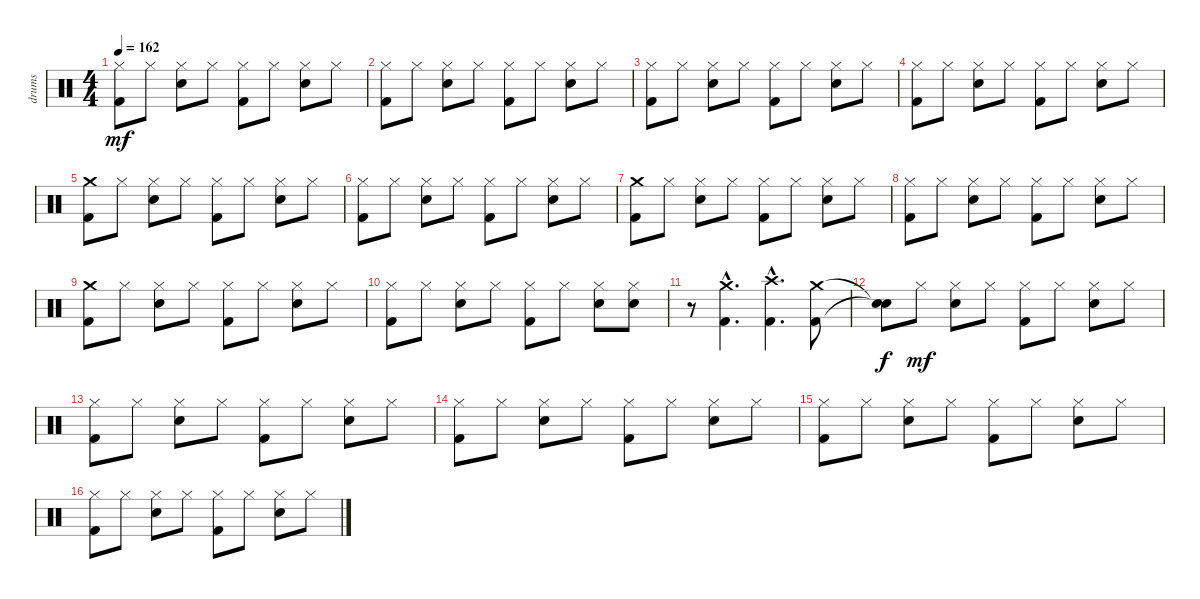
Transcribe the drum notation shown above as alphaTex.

\track ("drums" "drums") {instrument percussion}
\staff {score}
\articulation defaults
\ts (4 4)
\tempo 162
\clef neutral
\ks c
("Hi-Hat (closed)" "Kick (hit) 2").8{dy mf} "Hi-Hat (closed)".8 ("Hi-Hat (closed)" "Snare (hit) 2").8 "Hi-Hat (closed)".8 ("Hi-Hat (closed)" "Kick (hit) 2").8 "Hi-Hat (closed)".8 ("Hi-Hat (closed)" "Snare (hit) 2").8 "Hi-Hat (closed)".8 |
("Hi-Hat (closed)" "Kick (hit) 2").8 "Hi-Hat (closed)".8 ("Hi-Hat (closed)" "Snare (hit) 2").8 "Hi-Hat (closed)".8 ("Hi-Hat (closed)" "Kick (hit) 2").8 "Hi-Hat (closed)".8 ("Hi-Hat (closed)" "Snare (hit) 2").8 "Hi-Hat (closed)".8 |
("Hi-Hat (closed)" "Kick (hit) 2").8 "Hi-Hat (closed)".8 ("Hi-Hat (closed)" "Snare (hit) 2").8 "Hi-Hat (closed)".8 ("Hi-Hat (closed)" "Kick (hit) 2").8 "Hi-Hat (closed)".8 ("Hi-Hat (closed)" "Snare (hit) 2").8 "Hi-Hat (closed)".8 |
("Hi-Hat (closed)" "Kick (hit) 2").8 "Hi-Hat (closed)".8 ("Hi-Hat (closed)" "Snare (hit) 2").8 "Hi-Hat (closed)".8 ("Hi-Hat (closed)" "Kick (hit) 2").8 "Hi-Hat (closed)".8 ("Hi-Hat (closed)" "Snare (hit) 2").8 "Hi-Hat (closed)".8 |
("Crash medium (hit)" "Kick (hit) 2").8 "Hi-Hat (closed)".8 ("Hi-Hat (closed)" "Snare (hit) 2").8 "Hi-Hat (closed)".8 ("Hi-Hat (closed)" "Kick (hit) 2").8 "Hi-Hat (closed)".8 ("Hi-Hat (closed)" "Snare (hit) 2").8 "Hi-Hat (closed)".8 |
("Hi-Hat (closed)" "Kick (hit) 2").8 "Hi-Hat (closed)".8 ("Hi-Hat (closed)" "Snare (hit) 2").8 "Hi-Hat (closed)".8 ("Hi-Hat (closed)" "Kick (hit) 2").8 "Hi-Hat (closed)".8 ("Hi-Hat (closed)" "Snare (hit) 2").8 "Hi-Hat (closed)".8 |
("Crash medium (hit)" "Kick (hit) 2").8 "Hi-Hat (closed)".8 ("Hi-Hat (closed)" "Snare (hit) 2").8 "Hi-Hat (closed)".8 ("Hi-Hat (closed)" "Kick (hit) 2").8 "Hi-Hat (closed)".8 ("Hi-Hat (closed)" "Snare (hit) 2").8 "Hi-Hat (closed)".8 |
("Hi-Hat (closed)" "Kick (hit) 2").8 "Hi-Hat (closed)".8 ("Hi-Hat (closed)" "Snare (hit) 2").8 "Hi-Hat (closed)".8 ("Hi-Hat (closed)" "Kick (hit) 2").8 "Hi-Hat (closed)".8 ("Hi-Hat (closed)" "Snare (hit) 2").8 "Hi-Hat (closed)".8 |
("Crash medium (hit)" "Kick (hit) 2").8 "Hi-Hat (closed)".8 ("Hi-Hat (closed)" "Snare (hit) 2").8 "Hi-Hat (closed)".8 ("Hi-Hat (closed)" "Kick (hit) 2").8 "Hi-Hat (closed)".8 ("Hi-Hat (closed)" "Snare (hit) 2").8 "Hi-Hat (closed)".8 |
("Hi-Hat (closed)" "Kick (hit) 2").8 "Hi-Hat (closed)".8 ("Hi-Hat (closed)" "Snare (hit) 2").8 "Hi-Hat (closed)".8 ("Hi-Hat (closed)" "Kick (hit) 2").8 "Hi-Hat (closed)".8 ("Hi-Hat (closed)" "Snare (hit) 2").8 ("Hi-Hat (closed)" "Snare (hit) 2").8 |
r.8 ("Crash medium (hit)"{hac} "Kick (hit) 2"{hac}).4{d} ("Crash high (hit)"{hac} "Kick (hit) 2"{hac}).4{d} ("Crash medium (hit)" "Kick (hit) 2").8 |
("Snare (hit)"{t} "Snare (hit)"{t}).8{dy f} "Hi-Hat (closed)".8{dy mf} ("Hi-Hat (closed)" "Snare (hit) 2").8 "Hi-Hat (closed)".8 ("Hi-Hat (closed)" "Kick (hit) 2").8 "Hi-Hat (closed)".8 ("Hi-Hat (closed)" "Snare (hit) 2").8 "Hi-Hat (closed)".8 |
("Hi-Hat (closed)" "Kick (hit) 2").8 "Hi-Hat (closed)".8 ("Hi-Hat (closed)" "Snare (hit) 2").8 "Hi-Hat (closed)".8 ("Hi-Hat (closed)" "Kick (hit) 2").8 "Hi-Hat (closed)".8 ("Hi-Hat (closed)" "Snare (hit) 2").8 "Hi-Hat (closed)".8 |
("Hi-Hat (closed)" "Kick (hit) 2").8 "Hi-Hat (closed)".8 ("Hi-Hat (closed)" "Snare (hit) 2").8 "Hi-Hat (closed)".8 ("Hi-Hat (closed)" "Kick (hit) 2").8 "Hi-Hat (closed)".8 ("Hi-Hat (closed)" "Snare (hit) 2").8 "Hi-Hat (closed)".8 |
("Hi-Hat (closed)" "Kick (hit) 2").8 "Hi-Hat (closed)".8 ("Hi-Hat (closed)" "Snare (hit) 2").8 "Hi-Hat (closed)".8 ("Hi-Hat (closed)" "Kick (hit) 2").8 "Hi-Hat (closed)".8 ("Hi-Hat (closed)" "Snare (hit) 2").8 "Hi-Hat (closed)".8 |
("Hi-Hat (closed)" "Kick (hit) 2").8 "Hi-Hat (closed)".8 ("Hi-Hat (closed)" "Snare (hit) 2").8 "Hi-Hat (closed)".8 ("Hi-Hat (closed)" "Kick (hit) 2").8 "Hi-Hat (closed)".8 ("Hi-Hat (closed)" "Snare (hit) 2").8 "Hi-Hat (closed)".8
